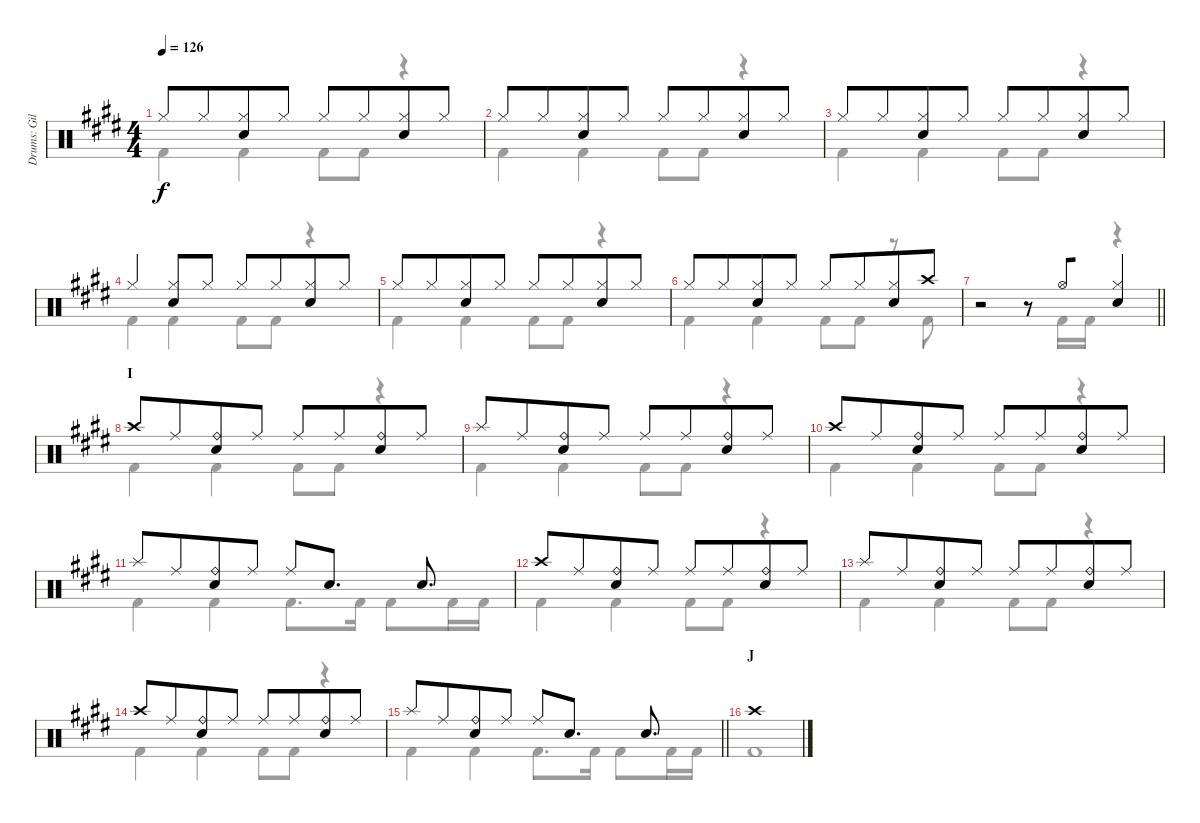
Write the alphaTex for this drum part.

\track ("Drums: Gil" "Drums: Gil") {instrument percussion}
\staff {score}
\articulation defaults
\voice
\ts (4 4)
\tempo 126
\clef neutral
\ks e "Hi-Hat (closed)".8{dy f} "Hi-Hat (closed)".8{beam merge}
("Hi-Hat (closed)" "Snare (hit) 2").8 "Hi-Hat (closed)".8 "Hi-Hat (closed)".8 "Hi-Hat (closed)".8{beam merge} ("Hi-Hat (closed)" "Snare (hit) 2").8 "Hi-Hat (closed)".8 |
"Hi-Hat (closed)".8 "Hi-Hat (closed)".8{beam merge} ("Hi-Hat (closed)" "Snare (hit) 2").8 "Hi-Hat (closed)".8 "Hi-Hat (closed)".8 "Hi-Hat (closed)".8{beam merge} ("Hi-Hat (closed)" "Snare (hit) 2").8 "Hi-Hat (closed)".8 |
"Hi-Hat (closed)".8 "Hi-Hat (closed)".8{beam merge} ("Hi-Hat (closed)" "Snare (hit) 2").8 "Hi-Hat (closed)".8 "Hi-Hat (closed)".8 "Hi-Hat (closed)".8{beam merge} ("Hi-Hat (closed)" "Snare (hit) 2").8 "Hi-Hat (closed)".8 |
"Hi-Hat (closed)".4{beam merge} ("Hi-Hat (closed)" "Snare (hit) 2").8 "Hi-Hat (closed)".8 "Hi-Hat (closed)".8 "Hi-Hat (closed)".8{beam merge} ("Hi-Hat (closed)" "Snare (hit) 2").8 "Hi-Hat (closed)".8 |
"Hi-Hat (closed)".8 "Hi-Hat (closed)".8{beam merge} ("Hi-Hat (closed)" "Snare (hit) 2").8 "Hi-Hat (closed)".8 "Hi-Hat (closed)".8 "Hi-Hat (closed)".8{beam merge} ("Hi-Hat (closed)" "Snare (hit) 2").8 "Hi-Hat (closed)".8 |
"Hi-Hat (closed)".8 "Hi-Hat (closed)".8{beam merge} ("Hi-Hat (closed)" "Snare (hit) 2").8 "Hi-Hat (closed)".8 "Hi-Hat (closed)".8 "Hi-Hat (closed)".8{beam merge} ("Hi-Hat (closed)" "Snare (hit) 2").8 "Crash high (hit)".8 |
\barLineRight lightlight
r.2 r.8 "Hi-Hat (open)".8{beam merge} ("Hi-Hat (closed)" "Snare (hit) 2").4 |
\section ("" "I")
"Crash high (hit)".8 "Ride (middle)".8{beam merge} ("Ride (bell)" "Snare (hit) 2").8 "Ride (middle)".8 "Ride (middle)".8 "Ride (middle)".8{beam merge} ("Ride (bell)" "Snare (hit) 2").8 "Ride (middle)".8 |
"Splash (hit)".8 "Ride (middle)".8{beam merge} ("Ride (bell)" "Snare (hit) 2").8 "Ride (middle)".8 "Ride (middle)".8 "Ride (middle)".8{beam merge} ("Ride (bell)" "Snare (hit) 2").8 "Ride (middle)".8 |
"Crash high (hit)".8 "Ride (middle)".8{beam merge} ("Ride (bell)" "Snare (hit) 2").8 "Ride (middle)".8 "Ride (middle)".8 "Ride (middle)".8{beam merge} ("Ride (bell)" "Snare (hit) 2").8 "Ride (middle)".8 |
"Splash (hit)".8 "Ride (middle)".8{beam merge} ("Ride (bell)" "Snare (hit) 2").8 "Ride (middle)".8 "Ride (middle)".8 "Snare (hit) 2".8{d} "Snare (hit) 2".8{d} |
"Crash high (hit)".8 "Ride (middle)".8{beam merge} ("Ride (bell)" "Snare (hit) 2").8 "Ride (middle)".8 "Ride (middle)".8 "Ride (middle)".8{beam merge} ("Ride (bell)" "Snare (hit) 2").8 "Ride (middle)".8 |
"Splash (hit)".8 "Ride (middle)".8{beam merge} ("Ride (bell)" "Snare (hit) 2").8 "Ride (middle)".8 "Ride (middle)".8 "Ride (middle)".8{beam merge} ("Ride (bell)" "Snare (hit) 2").8 "Ride (middle)".8 |
"Crash high (hit)".8 "Ride (middle)".8{beam merge} ("Ride (bell)" "Snare (hit) 2").8 "Ride (middle)".8 "Ride (middle)".8 "Ride (middle)".8{beam merge} ("Ride (bell)" "Snare (hit) 2").8 "Ride (middle)".8 |
\barLineRight lightlight "Splash (hit)".8 "Ride (middle)".8{beam merge}
("Ride (bell)" "Snare (hit) 2").8 "Ride (middle)".8 "Ride (middle)".8 "Snare (hit) 2".8{d} "Snare (hit) 2".8{d} |
\section ("" "J")
"Crash high (hit)".1
\voice
\clef neutral
\ottava regular
\simile none
\ks e "Kick (hit) 2".4{dy f} "Kick (hit) 2".4 "Kick (hit) 2".8 "Kick (hit) 2".8
r.4 |
"Kick (hit) 2".4 "Kick (hit) 2".4 "Kick (hit) 2".8 "Kick (hit) 2".8 r.4 |
"Kick (hit) 2".4 "Kick (hit) 2".4 "Kick (hit) 2".8 "Kick (hit) 2".8 r.4 |
"Kick (hit) 2".4 "Kick (hit) 2".4 "Kick (hit) 2".8 "Kick (hit) 2".8 r.4 |
"Kick (hit) 2".4 "Kick (hit) 2".4 "Kick (hit) 2".8 "Kick (hit) 2".8 r.4 |
"Kick (hit) 2".4 "Kick (hit) 2".4 "Kick (hit) 2".8 "Kick (hit) 2".8 r.8 "Kick (hit) 2".8 |
\barLineRight lightlight
r.2 r.8 "Kick (hit) 2".16 "Kick (hit) 2".16 r.4 |
"Kick (hit) 2".4 "Kick (hit) 2".4 "Kick (hit) 2".8 "Kick (hit) 2".8 r.4 |
"Kick (hit) 2".4 "Kick (hit) 2".4 "Kick (hit) 2".8 "Kick (hit) 2".8 r.4 |
"Kick (hit) 2".4 "Kick (hit) 2".4 "Kick (hit) 2".8 "Kick (hit) 2".8 r.4 |
"Kick (hit) 2".4 "Kick (hit) 2".4 "Kick (hit) 2".8{d} "Kick (hit) 2".16 "Kick (hit) 2".8 "Kick (hit) 2".16 "Kick (hit) 2".16 |
"Kick (hit) 2".4 "Kick (hit) 2".4 "Kick (hit) 2".8 "Kick (hit) 2".8 r.4 |
"Kick (hit) 2".4 "Kick (hit) 2".4 "Kick (hit) 2".8 "Kick (hit) 2".8 r.4 |
"Kick (hit) 2".4 "Kick (hit) 2".4 "Kick (hit) 2".8 "Kick (hit) 2".8 r.4 |
\barLineRight lightlight "Kick (hit) 2".4 "Kick (hit) 2".4 "Kick (hit) 2".8{d} "Kick (hit) 2".16 "Kick (hit) 2".8 "Kick (hit) 2".16 "Kick (hit) 2".16
|
"Kick (hit) 2".1
